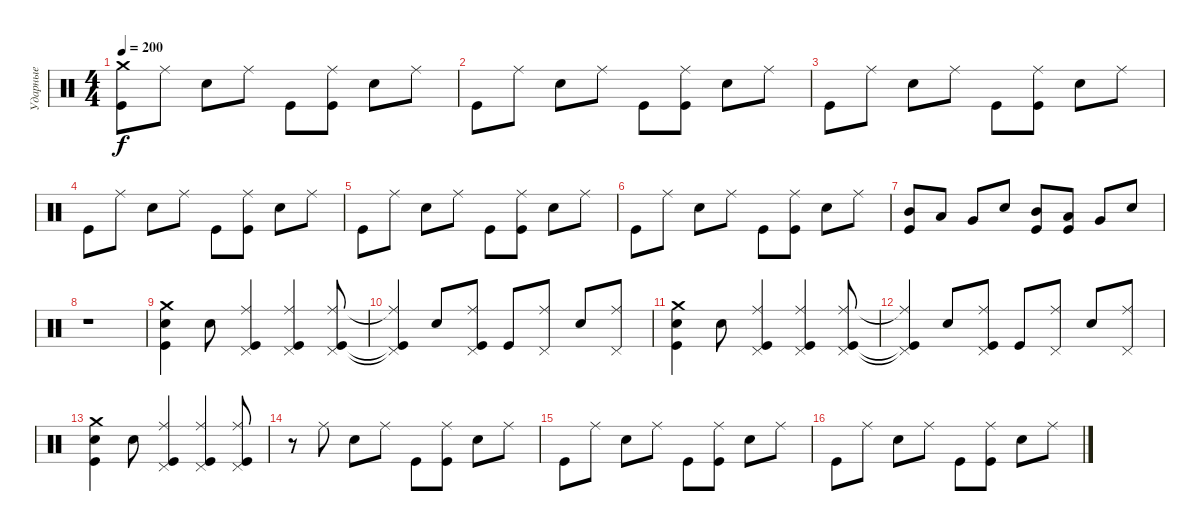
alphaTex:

\track ("Ударные" "Ударные") {instrument percussion}
\staff {score}
\articulation defaults
\ts (4 4)
\tempo 200
\clef neutral
\ks c
("Crash medium (hit)" "Kick (hit)").8{dy f} "Ride (middle)".8 "Electric Snare (hit)".8 "Ride (middle)".8 "Kick (hit)".8 ("Ride (middle)" "Kick (hit)").8 "Electric Snare (hit)".8 "Ride (middle)".8 |
"Kick (hit)".8 "Ride (middle)".8 "Electric Snare (hit)".8 "Ride (middle)".8 "Kick (hit)".8 ("Ride (middle)" "Kick (hit)").8 "Electric Snare (hit)".8 "Ride (middle)".8 |
"Kick (hit)".8 "Ride (middle)".8 "Electric Snare (hit)".8 "Ride (middle)".8 "Kick (hit)".8 ("Ride (middle)" "Kick (hit)").8 "Electric Snare (hit)".8 "Ride (middle)".8 |
"Kick (hit)".8 "Ride (middle)".8 "Electric Snare (hit)".8 "Ride (middle)".8 "Kick (hit)".8 ("Ride (middle)" "Kick (hit)").8 "Electric Snare (hit)".8 "Ride (middle)".8 |
"Kick (hit)".8 "Ride (middle)".8 "Electric Snare (hit)".8 "Ride (middle)".8 "Kick (hit)".8 ("Ride (middle)" "Kick (hit)").8 "Electric Snare (hit)".8 "Ride (middle)".8 |
"Kick (hit)".8 "Ride (middle)".8 "Electric Snare (hit)".8 "Ride (middle)".8 "Kick (hit)".8 ("Ride (middle)" "Kick (hit)").8 "Electric Snare (hit)".8 "Ride (middle)".8 |
("Mid Tom (hit)" "Kick (hit)").8 "Low Tom (hit)".8 "Very Low Tom (hit)".8 "Electric Snare (hit)".8 ("Mid Tom (hit)" "Kick (hit)").8 ("Low Tom (hit)" "Kick (hit)").8 "Very Low Tom (hit)".8 "Electric Snare (hit)".8 |
r.1 |
("Crash medium (hit)" "Electric Snare (hit)" "Kick (hit)").4 "Electric Snare (hit)".8 ("Ride (middle)" "Pedal Hi-Hat (hit)" "Kick (hit)").4 ("Ride (middle)" "Pedal Hi-Hat (hit)" "Kick (hit)").4 ("Ride (middle)" "Pedal Hi-Hat (hit)" "Kick (hit)").8 |
("Ride (middle)"{t} "Pedal Hi-Hat (hit)"{t} "Kick (hit)"{t}).4 "Electric Snare (hit)".8 ("Ride (middle)" "Pedal Hi-Hat (hit)" "Kick (hit)").8 "Kick (hit)".8 ("Ride (middle)" "Pedal Hi-Hat (hit)").8 "Electric Snare (hit)".8 ("Ride (middle)" "Pedal Hi-Hat (hit)").8 |
("Crash medium (hit)" "Electric Snare (hit)" "Kick (hit)").4 "Electric Snare (hit)".8 ("Ride (middle)" "Pedal Hi-Hat (hit)" "Kick (hit)").4 ("Ride (middle)" "Pedal Hi-Hat (hit)" "Kick (hit)").4 ("Ride (middle)" "Pedal Hi-Hat (hit)" "Kick (hit)").8 |
("Ride (middle)"{t} "Pedal Hi-Hat (hit)"{t} "Kick (hit)"{t}).4 "Electric Snare (hit)".8 ("Ride (middle)" "Pedal Hi-Hat (hit)" "Kick (hit)").8 "Kick (hit)".8 ("Ride (middle)" "Pedal Hi-Hat (hit)").8 "Electric Snare (hit)".8 ("Ride (middle)" "Pedal Hi-Hat (hit)").8 |
("Crash medium (hit)" "Electric Snare (hit)" "Kick (hit)").4 "Electric Snare (hit)".8 ("Ride (middle)" "Pedal Hi-Hat (hit)" "Kick (hit)").4 ("Ride (middle)" "Pedal Hi-Hat (hit)" "Kick (hit)").4 ("Ride (middle)" "Pedal Hi-Hat (hit)" "Kick (hit)").8 |
r.8 "Ride (middle)".8 "Electric Snare (hit)".8 "Ride (middle)".8 "Kick (hit)".8 ("Ride (middle)" "Kick (hit)").8 "Electric Snare (hit)".8 "Ride (middle)".8 |
"Kick (hit)".8 "Ride (middle)".8 "Electric Snare (hit)".8 "Ride (middle)".8 "Kick (hit)".8 ("Ride (middle)" "Kick (hit)").8 "Electric Snare (hit)".8 "Ride (middle)".8 |
"Kick (hit)".8 "Ride (middle)".8 "Electric Snare (hit)".8 "Ride (middle)".8 "Kick (hit)".8 ("Ride (middle)" "Kick (hit)").8 "Electric Snare (hit)".8 "Ride (middle)".8
